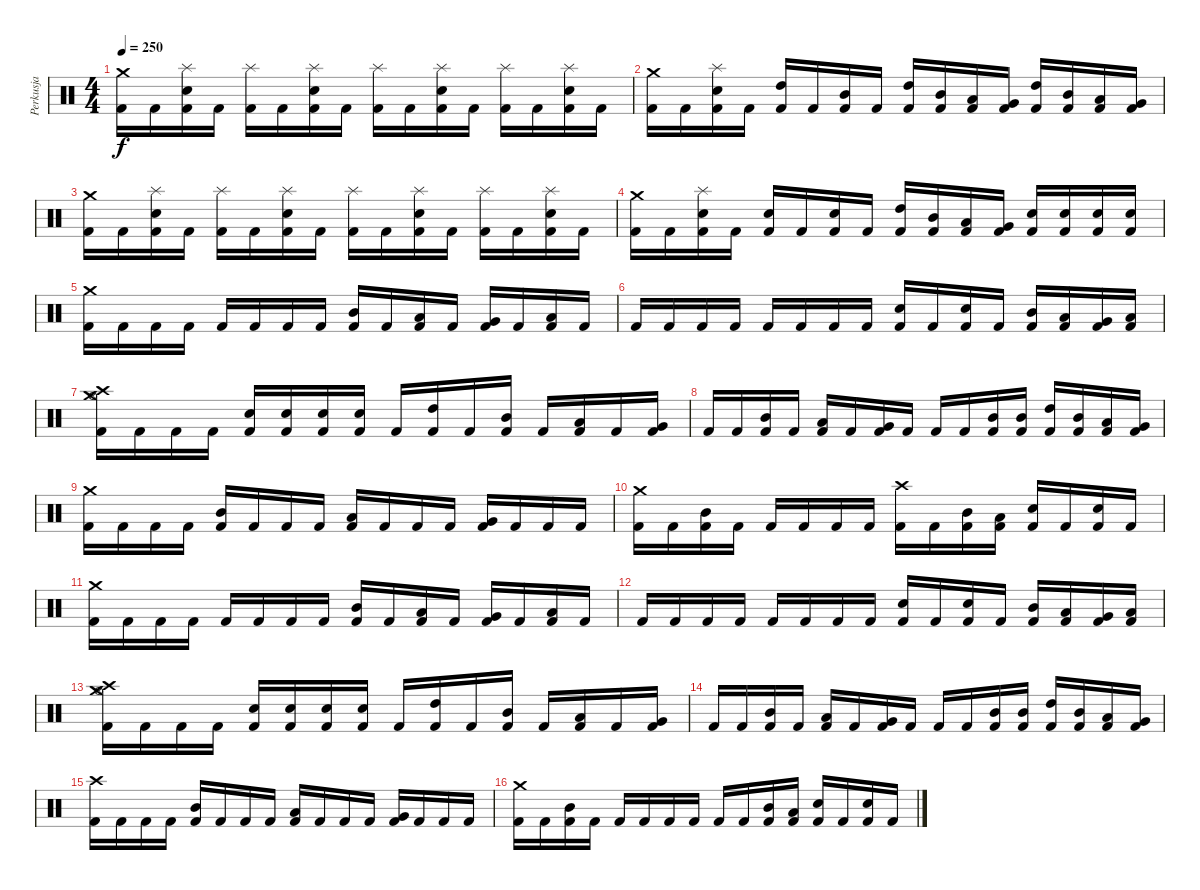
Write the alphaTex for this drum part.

\track ("Perkusja" "Perkusja") {instrument percussion}
\staff {score}
\articulation defaults
\ts (4 4)
\tempo 250
\clef neutral
\ks c
("Crash medium (hit)" "Kick (hit) 2").16{dy f} "Kick (hit) 2".16 ("Splash (hit)" "Snare (hit) 2" "Kick (hit) 2").16 "Kick (hit) 2".16 ("Splash (hit)" "Kick (hit) 2").16 "Kick (hit) 2".16 ("Splash (hit)" "Snare (hit) 2" "Kick (hit) 2").16 "Kick (hit) 2".16 ("Splash (hit)" "Kick (hit) 2").16 "Kick (hit) 2".16 ("Splash (hit)" "Snare (hit) 2" "Kick (hit) 2").16 "Kick (hit) 2".16 ("Splash (hit)" "Kick (hit) 2").16 "Kick (hit) 2".16 ("Splash (hit)" "Snare (hit) 2" "Kick (hit) 2").16 "Kick (hit) 2".16 |
("Crash medium (hit)" "Kick (hit) 2").16 "Kick (hit) 2".16 ("Splash (hit)" "Snare (hit) 2" "Kick (hit) 2").16 "Kick (hit) 2".16 ("High Tom (hit)" "Kick (hit) 2").16 "Kick (hit) 2".16 ("Mid Tom (hit)" "Kick (hit) 2").16 "Kick (hit) 2".16 ("High Tom (hit)" "Kick (hit) 2").16 ("Mid Tom (hit)" "Kick (hit) 2").16 ("Low Tom (hit)" "Kick (hit) 2").16 ("Very Low Tom (hit)" "Kick (hit) 2").16 ("High Tom (hit)" "Kick (hit) 2").16 ("Mid Tom (hit)" "Kick (hit) 2").16 ("Low Tom (hit)" "Kick (hit) 2").16 ("Very Low Tom (hit)" "Kick (hit) 2").16 |
("Crash medium (hit)" "Kick (hit) 2").16 "Kick (hit) 2".16 ("Splash (hit)" "Snare (hit) 2" "Kick (hit) 2").16 "Kick (hit) 2".16 ("Splash (hit)" "Kick (hit) 2").16 "Kick (hit) 2".16 ("Splash (hit)" "Snare (hit) 2" "Kick (hit) 2").16 "Kick (hit) 2".16 ("Splash (hit)" "Kick (hit) 2").16 "Kick (hit) 2".16 ("Splash (hit)" "Snare (hit) 2" "Kick (hit) 2").16 "Kick (hit) 2".16 ("Splash (hit)" "Kick (hit) 2").16 "Kick (hit) 2".16 ("Splash (hit)" "Snare (hit) 2" "Kick (hit) 2").16 "Kick (hit) 2".16 |
("Crash medium (hit)" "Kick (hit) 2").16 "Kick (hit) 2".16 ("Splash (hit)" "Snare (hit) 2" "Kick (hit) 2").16 "Kick (hit) 2".16 ("Electric Snare (hit)" "Kick (hit) 2").16 "Kick (hit) 2".16 ("Electric Snare (hit)" "Kick (hit) 2").16 "Kick (hit) 2".16 ("High Tom (hit)" "Kick (hit) 2").16 ("Mid Tom (hit)" "Kick (hit) 2").16 ("Low Tom (hit)" "Kick (hit) 2").16 ("Very Low Tom (hit)" "Kick (hit) 2").16 ("Electric Snare (hit)" "Kick (hit) 2").16 ("Electric Snare (hit)" "Kick (hit) 2").16 ("Electric Snare (hit)" "Kick (hit) 2").16 ("Electric Snare (hit)" "Kick (hit) 2").16 |
("Crash medium (hit)" "Kick (hit) 2").16 "Kick (hit) 2".16 "Kick (hit) 2".16 "Kick (hit) 2".16 "Kick (hit) 2".16 "Kick (hit) 2".16 "Kick (hit) 2".16 "Kick (hit) 2".16 ("Mid Tom (hit)" "Kick (hit) 2").16 "Kick (hit) 2".16 ("Low Tom (hit)" "Kick (hit) 2").16 "Kick (hit) 2".16 ("Very Low Tom (hit)" "Kick (hit) 2").16 "Kick (hit) 2".16 ("Low Floor Tom (hit)" "Kick (hit) 2").16 "Kick (hit) 2".16 |
"Kick (hit) 2".16 "Kick (hit) 2".16 "Kick (hit) 2".16 "Kick (hit) 2".16 "Kick (hit) 2".16 "Kick (hit) 2".16 "Kick (hit) 2".16 "Kick (hit) 2".16 ("Electric Snare (hit)" "Kick (hit) 2").16 "Kick (hit) 2".16 ("Electric Snare (hit)" "Kick (hit) 2").16 "Kick (hit) 2".16 ("Mid Tom (hit)" "Kick (hit) 2").16 ("Low Tom (hit)" "Kick (hit) 2").16 ("Very Low Tom (hit)" "Kick (hit) 2").16 ("Low Floor Tom (hit)" "Kick (hit) 2").16 |
("Crash medium (hit)" "Crash high (hit)" "Hi-Hat (open)" "Kick (hit) 2").16 "Kick (hit) 2".16 "Kick (hit) 2".16 "Kick (hit) 2".16 ("Snare (hit) 2" "Kick (hit) 2").16 ("Snare (hit) 2" "Kick (hit) 2").16 ("Snare (hit) 2" "Kick (hit) 2").16 ("Snare (hit) 2" "Kick (hit) 2").16 "Kick (hit) 2".16 ("High Tom (hit)" "Kick (hit) 2").16 "Kick (hit) 2".16 ("Mid Tom (hit)" "Kick (hit) 2").16 "Kick (hit) 2".16 ("Low Tom (hit)" "Kick (hit) 2").16 "Kick (hit) 2".16 ("Very Low Tom (hit)" "Kick (hit) 2").16 |
"Kick (hit) 2".16 "Kick (hit) 2".16 ("Mid Tom (hit)" "Kick (hit) 2").16 "Kick (hit) 2".16 ("Low Tom (hit)" "Kick (hit) 2").16 "Kick (hit) 2".16 ("Very Low Tom (hit)" "Kick (hit) 2").16 "Kick (hit) 2".16 "Kick (hit) 2".16 "Kick (hit) 2".16 ("Mid Tom (hit)" "Kick (hit) 2").16 ("Mid Tom (hit)" "Kick (hit) 2").16 ("High Tom (hit)" "Kick (hit) 2").16 ("Mid Tom (hit)" "Kick (hit) 2").16 ("Low Tom (hit)" "Kick (hit) 2").16 ("Very Low Tom (hit)" "Kick (hit) 2").16 |
("Crash medium (hit)" "Kick (hit) 2").16 "Kick (hit) 2".16 "Kick (hit) 2".16 "Kick (hit) 2".16 ("Mid Tom (hit)" "Kick (hit) 2").16 "Kick (hit) 2".16 "Kick (hit) 2".16 "Kick (hit) 2".16 ("Low Tom (hit)" "Kick (hit) 2").16 "Kick (hit) 2".16 "Kick (hit) 2".16 "Kick (hit) 2".16 ("Very Low Tom (hit)" "Kick (hit) 2").16 "Kick (hit) 2".16 "Kick (hit) 2".16 "Kick (hit) 2".16 |
("Crash medium (hit)" "Kick (hit) 2").16 "Kick (hit) 2".16 ("Mid Tom (hit)" "Kick (hit) 2").16 "Kick (hit) 2".16 "Kick (hit) 2".16 "Kick (hit) 2".16 "Kick (hit) 2".16 "Kick (hit) 2".16 ("Crash high (hit)" "Kick (hit) 2").16 "Kick (hit) 2".16 ("Mid Tom (hit)" "Kick (hit) 2").16 ("Low Tom (hit)" "Kick (hit) 2").16 ("Electric Snare (hit)" "Kick (hit) 2").16 "Kick (hit) 2".16 ("Electric Snare (hit)" "Kick (hit) 2").16 "Kick (hit) 2".16 |
("Crash medium (hit)" "Kick (hit) 2").16 "Kick (hit) 2".16 "Kick (hit) 2".16 "Kick (hit) 2".16 "Kick (hit) 2".16 "Kick (hit) 2".16 "Kick (hit) 2".16 "Kick (hit) 2".16 ("Mid Tom (hit)" "Kick (hit) 2").16 "Kick (hit) 2".16 ("Low Tom (hit)" "Kick (hit) 2").16 "Kick (hit) 2".16 ("Very Low Tom (hit)" "Kick (hit) 2").16 "Kick (hit) 2".16 ("Low Floor Tom (hit)" "Kick (hit) 2").16 "Kick (hit) 2".16 |
"Kick (hit) 2".16 "Kick (hit) 2".16 "Kick (hit) 2".16 "Kick (hit) 2".16 "Kick (hit) 2".16 "Kick (hit) 2".16 "Kick (hit) 2".16 "Kick (hit) 2".16 ("Electric Snare (hit)" "Kick (hit) 2").16 "Kick (hit) 2".16 ("Electric Snare (hit)" "Kick (hit) 2").16 "Kick (hit) 2".16 ("Mid Tom (hit)" "Kick (hit) 2").16 ("Low Tom (hit)" "Kick (hit) 2").16 ("Very Low Tom (hit)" "Kick (hit) 2").16 ("Low Floor Tom (hit)" "Kick (hit) 2").16 |
("Crash medium (hit)" "Crash high (hit)" "Hi-Hat (open)" "Kick (hit) 2").16 "Kick (hit) 2".16 "Kick (hit) 2".16 "Kick (hit) 2".16 ("Snare (hit) 2" "Kick (hit) 2").16 ("Snare (hit) 2" "Kick (hit) 2").16 ("Snare (hit) 2" "Kick (hit) 2").16 ("Snare (hit) 2" "Kick (hit) 2").16 "Kick (hit) 2".16 ("High Tom (hit)" "Kick (hit) 2").16 "Kick (hit) 2".16 ("Mid Tom (hit)" "Kick (hit) 2").16 "Kick (hit) 2".16 ("Low Tom (hit)" "Kick (hit) 2").16 "Kick (hit) 2".16 ("Very Low Tom (hit)" "Kick (hit) 2").16 |
"Kick (hit) 2".16 "Kick (hit) 2".16 ("Mid Tom (hit)" "Kick (hit) 2").16 "Kick (hit) 2".16 ("Low Tom (hit)" "Kick (hit) 2").16 "Kick (hit) 2".16 ("Very Low Tom (hit)" "Kick (hit) 2").16 "Kick (hit) 2".16 "Kick (hit) 2".16 "Kick (hit) 2".16 ("Mid Tom (hit)" "Kick (hit) 2").16 ("Mid Tom (hit)" "Kick (hit) 2").16 ("High Tom (hit)" "Kick (hit) 2").16 ("Mid Tom (hit)" "Kick (hit) 2").16 ("Low Tom (hit)" "Kick (hit) 2").16 ("Very Low Tom (hit)" "Kick (hit) 2").16 |
("Crash high (hit)" "Kick (hit) 2").16 "Kick (hit) 2".16 "Kick (hit) 2".16 "Kick (hit) 2".16 ("Mid Tom (hit)" "Kick (hit) 2").16 "Kick (hit) 2".16 "Kick (hit) 2".16 "Kick (hit) 2".16 ("Low Tom (hit)" "Kick (hit) 2").16 "Kick (hit) 2".16 "Kick (hit) 2".16 "Kick (hit) 2".16 ("Very Low Tom (hit)" "Kick (hit) 2").16 "Kick (hit) 2".16 "Kick (hit) 2".16 "Kick (hit) 2".16 |
("Crash medium (hit)" "Kick (hit) 2").16 "Kick (hit) 2".16 ("Mid Tom (hit)" "Kick (hit) 2").16 "Kick (hit) 2".16 "Kick (hit) 2".16 "Kick (hit) 2".16 "Kick (hit) 2".16 "Kick (hit) 2".16 "Kick (hit) 2".16 "Kick (hit) 2".16 ("Mid Tom (hit)" "Kick (hit) 2").16 ("Low Tom (hit)" "Kick (hit) 2").16 ("Electric Snare (hit)" "Kick (hit) 2").16 "Kick (hit) 2".16 ("Electric Snare (hit)" "Kick (hit) 2").16 "Kick (hit) 2".16
